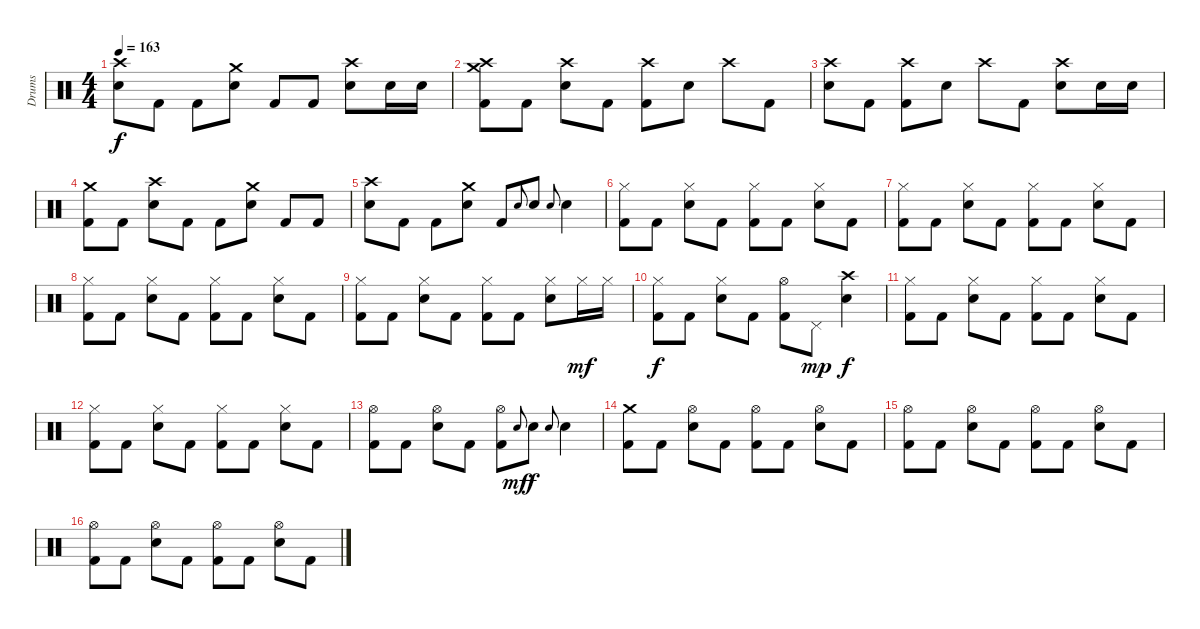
\track ("Drums" "Drums") {instrument percussion}
\staff {score}
\articulation defaults
\ts (4 4)
\tempo 163
\clef neutral
\ks c
("Crash high (hit)" "Electric Snare (hit)").8{dy f} "Kick (hit) 2".8 "Kick (hit) 2".8 ("Crash medium (hit)" "Electric Snare (hit)").8 "Kick (hit) 2".8 "Kick (hit) 2".8 ("Crash high (hit)" "Electric Snare (hit)").8 "Electric Snare (hit)".16 "Electric Snare (hit)".16 |
("Crash high (hit)" "Crash medium (hit)" "Kick (hit) 2").8 "Kick (hit) 2".8 ("Crash high (hit)" "Electric Snare (hit)").8 "Kick (hit) 2".8 ("Crash high (hit)" "Kick (hit) 2").8 "Electric Snare (hit)".8 "Crash high (hit)".8 "Kick (hit) 2".8 |
("Crash high (hit)" "Electric Snare (hit)").8 "Kick (hit) 2".8 ("Crash high (hit)" "Kick (hit) 2").8 "Electric Snare (hit)".8 "Crash high (hit)".8 "Kick (hit) 2".8 ("Crash high (hit)" "Electric Snare (hit)").8 "Electric Snare (hit)".16 "Electric Snare (hit)".16 |
("Crash medium (hit)" "Kick (hit) 2").8 "Kick (hit) 2".8 ("Crash high (hit)" "Electric Snare (hit)").8 "Kick (hit) 2".8 "Kick (hit) 2".8 ("Crash medium (hit)" "Electric Snare (hit)").8 "Kick (hit) 2".8 "Kick (hit) 2".8 |
("Crash high (hit)" "Electric Snare (hit)").8 "Kick (hit) 2".8 "Kick (hit) 2".8 ("Crash medium (hit)" "Electric Snare (hit)").8 "Kick (hit) 2".8 "Electric Snare (hit)".8{gr onbeat} "Electric Snare (hit)".8 "Electric Snare (hit)".8{gr onbeat} "Electric Snare (hit)".4 |
("Hi-Hat (closed)" "Kick (hit) 2").8 "Kick (hit) 2".8 ("Hi-Hat (closed)" "Electric Snare (hit)").8 "Kick (hit) 2".8 ("Hi-Hat (closed)" "Kick (hit) 2").8 "Kick (hit) 2".8 ("Hi-Hat (closed)" "Electric Snare (hit)").8 "Kick (hit) 2".8 |
("Hi-Hat (closed)" "Kick (hit) 2").8 "Kick (hit) 2".8 ("Hi-Hat (closed)" "Electric Snare (hit)").8 "Kick (hit) 2".8 ("Hi-Hat (closed)" "Kick (hit) 2").8 "Kick (hit) 2".8 ("Hi-Hat (closed)" "Electric Snare (hit)").8 "Kick (hit) 2".8 |
("Hi-Hat (closed)" "Kick (hit) 2").8 "Kick (hit) 2".8 ("Hi-Hat (closed)" "Electric Snare (hit)").8 "Kick (hit) 2".8 ("Hi-Hat (closed)" "Kick (hit) 2").8 "Kick (hit) 2".8 ("Hi-Hat (closed)" "Electric Snare (hit)").8 "Kick (hit) 2".8 |
("Hi-Hat (closed)" "Kick (hit) 2").8 "Kick (hit) 2".8 ("Hi-Hat (closed)" "Electric Snare (hit)").8 "Kick (hit) 2".8 ("Hi-Hat (closed)" "Kick (hit) 2").8 "Kick (hit) 2".8 ("Hi-Hat (closed)" "Electric Snare (hit)").8 "Hi-Hat (closed)".16{dy mf} "Hi-Hat (closed)".16 |
("Hi-Hat (closed)" "Kick (hit) 2").8{dy f} "Kick (hit) 2".8 ("Hi-Hat (closed)" "Electric Snare (hit)").8 "Kick (hit) 2".8 ("Hi-Hat (open)" "Kick (hit) 2").8 "Pedal Hi-Hat (hit)".8{dy mp} ("Crash high (hit)" "Electric Snare (hit)").4{dy f} |
("Hi-Hat (closed)" "Kick (hit) 2").8 "Kick (hit) 2".8 ("Hi-Hat (closed)" "Electric Snare (hit)").8 "Kick (hit) 2".8 ("Hi-Hat (closed)" "Kick (hit) 2").8 "Kick (hit) 2".8 ("Hi-Hat (closed)" "Electric Snare (hit)").8 "Kick (hit) 2".8 |
("Hi-Hat (closed)" "Kick (hit) 2").8 "Kick (hit) 2".8 ("Hi-Hat (closed)" "Electric Snare (hit)").8 "Kick (hit) 2".8 ("Hi-Hat (closed)" "Kick (hit) 2").8 "Kick (hit) 2".8 ("Hi-Hat (closed)" "Electric Snare (hit)").8 "Kick (hit) 2".8 |
("Hi-Hat (open)" "Kick (hit) 2").8 "Kick (hit) 2".8 ("Hi-Hat (open)" "Electric Snare (hit)").8 "Kick (hit) 2".8 ("Hi-Hat (open)" "Kick (hit) 2").8 "Electric Snare (hit)".8{gr onbeat dy mf} "Electric Snare (hit)".8{dy f} "Electric Snare (hit)".8{gr onbeat} "Electric Snare (hit)".4 |
("Crash medium (hit)" "Kick (hit) 2").8 "Kick (hit) 2".8 ("Hi-Hat (open)" "Electric Snare (hit)").8 "Kick (hit) 2".8 ("Hi-Hat (open)" "Kick (hit) 2").8 "Kick (hit) 2".8 ("Hi-Hat (open)" "Electric Snare (hit)").8 "Kick (hit) 2".8 |
("Hi-Hat (open)" "Kick (hit) 2").8 "Kick (hit) 2".8 ("Hi-Hat (open)" "Electric Snare (hit)").8 "Kick (hit) 2".8 ("Hi-Hat (open)" "Kick (hit) 2").8 "Kick (hit) 2".8 ("Hi-Hat (open)" "Electric Snare (hit)").8 "Kick (hit) 2".8 |
("Hi-Hat (open)" "Kick (hit) 2").8 "Kick (hit) 2".8 ("Hi-Hat (open)" "Electric Snare (hit)").8 "Kick (hit) 2".8 ("Hi-Hat (open)" "Kick (hit) 2").8 "Kick (hit) 2".8 ("Hi-Hat (open)" "Electric Snare (hit)").8 "Kick (hit) 2".8
